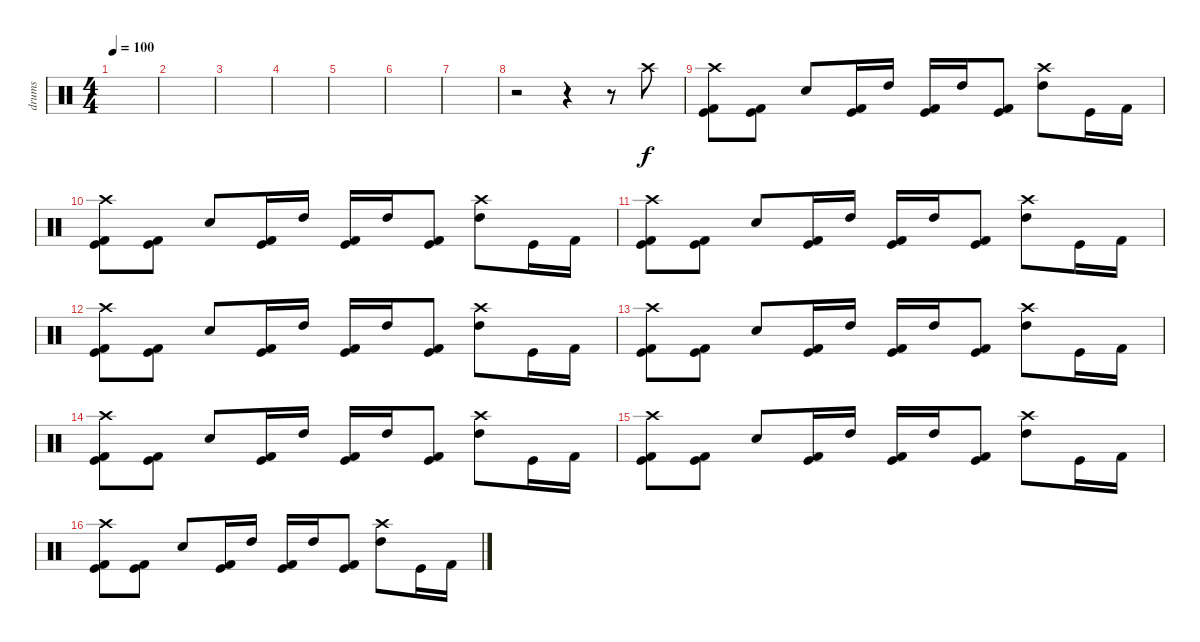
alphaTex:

\track ("drums" "drums") {instrument percussion}
\staff {score}
\articulation defaults
\ts (4 4)
\tempo 100
\clef neutral
\ks c
|
|
|
|
|
|
|
r.2 r.4 r.8 "Crash high (hit)".8 |
("Kick (hit) 2" "Kick (hit)" "Crash high (hit)").8 ("Kick (hit) 2" "Kick (hit)").8 "Snare (hit) 2".8 ("Kick (hit) 2" "Kick (hit)").16 "High Tom (hit)".16 ("Kick (hit) 2" "Kick (hit)").16 "High Tom (hit)".16 ("Kick (hit) 2" "Kick (hit)").8 ("High Tom (hit)" "Crash high (hit)").8 "Kick (hit)".16 "Kick (hit) 2".16 |
("Kick (hit) 2" "Kick (hit)" "Crash high (hit)").8 ("Kick (hit) 2" "Kick (hit)").8 "Snare (hit) 2".8 ("Kick (hit) 2" "Kick (hit)").16 "High Tom (hit)".16 ("Kick (hit) 2" "Kick (hit)").16 "High Tom (hit)".16 ("Kick (hit) 2" "Kick (hit)").8 ("High Tom (hit)" "Crash high (hit)").8 "Kick (hit)".16 "Kick (hit) 2".16 |
("Kick (hit) 2" "Kick (hit)" "Crash high (hit)").8 ("Kick (hit) 2" "Kick (hit)").8 "Snare (hit) 2".8 ("Kick (hit) 2" "Kick (hit)").16 "High Tom (hit)".16 ("Kick (hit) 2" "Kick (hit)").16 "High Tom (hit)".16 ("Kick (hit) 2" "Kick (hit)").8 ("High Tom (hit)" "Crash high (hit)").8 "Kick (hit)".16 "Kick (hit) 2".16 |
("Kick (hit) 2" "Kick (hit)" "Crash high (hit)").8 ("Kick (hit) 2" "Kick (hit)").8 "Snare (hit) 2".8 ("Kick (hit) 2" "Kick (hit)").16 "High Tom (hit)".16 ("Kick (hit) 2" "Kick (hit)").16 "High Tom (hit)".16 ("Kick (hit) 2" "Kick (hit)").8 ("High Tom (hit)" "Crash high (hit)").8 "Kick (hit)".16 "Kick (hit) 2".16 |
("Kick (hit) 2" "Kick (hit)" "Crash high (hit)").8 ("Kick (hit) 2" "Kick (hit)").8 "Snare (hit) 2".8 ("Kick (hit) 2" "Kick (hit)").16 "High Tom (hit)".16 ("Kick (hit) 2" "Kick (hit)").16 "High Tom (hit)".16 ("Kick (hit) 2" "Kick (hit)").8 ("High Tom (hit)" "Crash high (hit)").8 "Kick (hit)".16 "Kick (hit) 2".16 |
("Kick (hit) 2" "Kick (hit)" "Crash high (hit)").8 ("Kick (hit) 2" "Kick (hit)").8 "Snare (hit) 2".8 ("Kick (hit) 2" "Kick (hit)").16 "High Tom (hit)".16 ("Kick (hit) 2" "Kick (hit)").16 "High Tom (hit)".16 ("Kick (hit) 2" "Kick (hit)").8 ("High Tom (hit)" "Crash high (hit)").8 "Kick (hit)".16 "Kick (hit) 2".16 |
("Kick (hit) 2" "Kick (hit)" "Crash high (hit)").8 ("Kick (hit) 2" "Kick (hit)").8 "Snare (hit) 2".8 ("Kick (hit) 2" "Kick (hit)").16 "High Tom (hit)".16 ("Kick (hit) 2" "Kick (hit)").16 "High Tom (hit)".16 ("Kick (hit) 2" "Kick (hit)").8 ("High Tom (hit)" "Crash high (hit)").8 "Kick (hit)".16 "Kick (hit) 2".16 |
("Kick (hit) 2" "Kick (hit)" "Crash high (hit)").8 ("Kick (hit) 2" "Kick (hit)").8 "Snare (hit) 2".8 ("Kick (hit) 2" "Kick (hit)").16 "High Tom (hit)".16 ("Kick (hit) 2" "Kick (hit)").16 "High Tom (hit)".16 ("Kick (hit) 2" "Kick (hit)").8 ("High Tom (hit)" "Crash high (hit)").8 "Kick (hit)".16 "Kick (hit) 2".16
